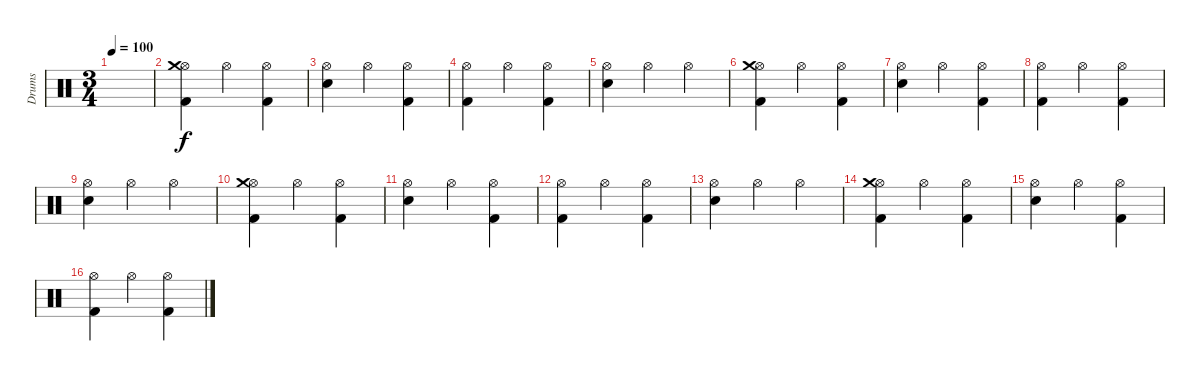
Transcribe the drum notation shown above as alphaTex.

\track ("Drums" "Drums") {instrument percussion}
\staff {score}
\articulation defaults
\ts (3 4)
\tempo 100
\clef neutral
\ks c
|
("Hi-Hat (open)" "Crash medium (hit)" "Kick (hit) 2").4 "Hi-Hat (open)".4 ("Hi-Hat (open)" "Kick (hit) 2").4 |
("Hi-Hat (open)" "Electric Snare (hit)").4 "Hi-Hat (open)".4 ("Hi-Hat (open)" "Kick (hit) 2").4 |
("Hi-Hat (open)" "Kick (hit) 2").4 "Hi-Hat (open)".4 ("Hi-Hat (open)" "Kick (hit) 2").4 |
("Hi-Hat (open)" "Electric Snare (hit)").4 "Hi-Hat (open)".4 "Hi-Hat (open)".4 |
("Hi-Hat (open)" "Crash medium (hit)" "Kick (hit) 2").4 "Hi-Hat (open)".4 ("Hi-Hat (open)" "Kick (hit) 2").4 |
("Hi-Hat (open)" "Electric Snare (hit)").4 "Hi-Hat (open)".4 ("Hi-Hat (open)" "Kick (hit) 2").4 |
("Hi-Hat (open)" "Kick (hit) 2").4 "Hi-Hat (open)".4 ("Hi-Hat (open)" "Kick (hit) 2").4 |
("Hi-Hat (open)" "Electric Snare (hit)").4 "Hi-Hat (open)".4 "Hi-Hat (open)".4 |
("Hi-Hat (open)" "Crash medium (hit)" "Kick (hit) 2").4 "Hi-Hat (open)".4 ("Hi-Hat (open)" "Kick (hit) 2").4 |
("Hi-Hat (open)" "Electric Snare (hit)").4 "Hi-Hat (open)".4 ("Hi-Hat (open)" "Kick (hit) 2").4 |
("Hi-Hat (open)" "Kick (hit) 2").4 "Hi-Hat (open)".4 ("Hi-Hat (open)" "Kick (hit) 2").4 |
("Hi-Hat (open)" "Electric Snare (hit)").4 "Hi-Hat (open)".4 "Hi-Hat (open)".4 |
("Hi-Hat (open)" "Crash medium (hit)" "Kick (hit) 2").4 "Hi-Hat (open)".4 ("Hi-Hat (open)" "Kick (hit) 2").4 |
("Hi-Hat (open)" "Electric Snare (hit)").4 "Hi-Hat (open)".4 ("Hi-Hat (open)" "Kick (hit) 2").4 |
("Hi-Hat (open)" "Kick (hit) 2").4 "Hi-Hat (open)".4 ("Hi-Hat (open)" "Kick (hit) 2").4
